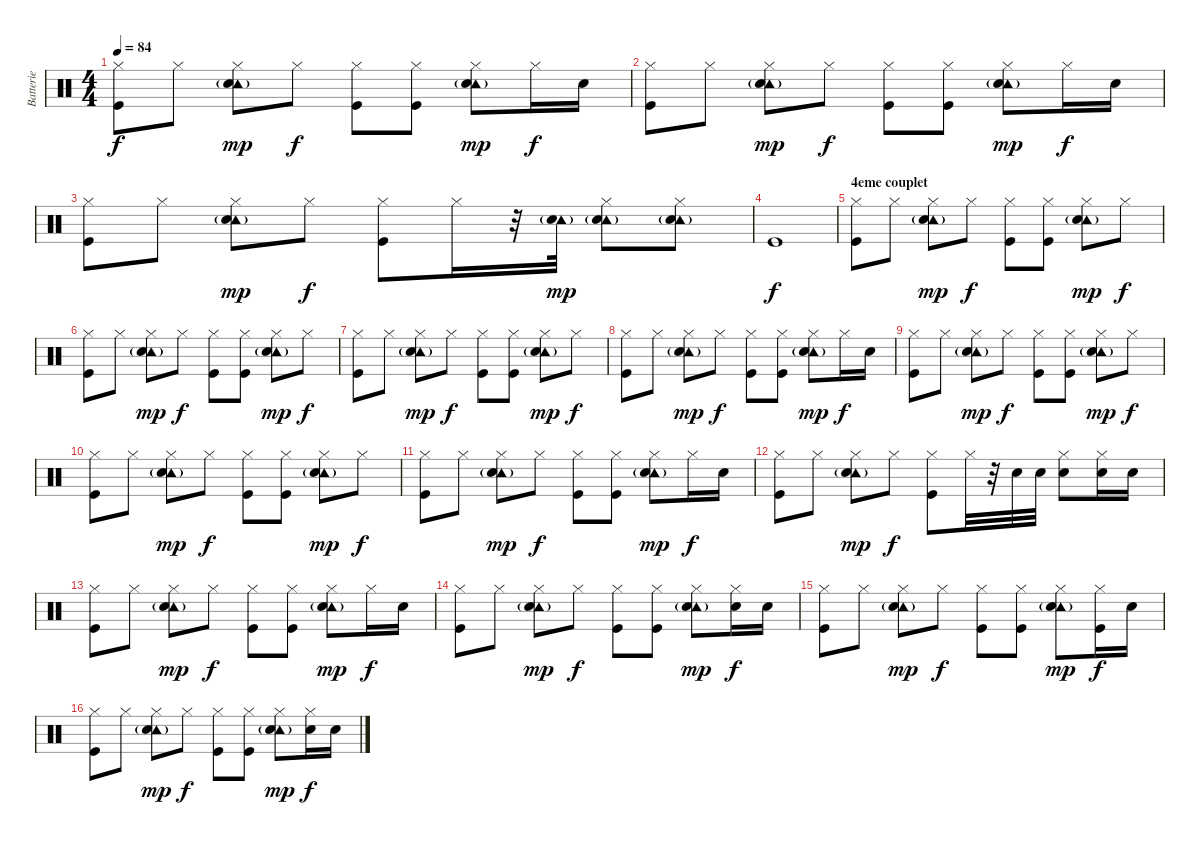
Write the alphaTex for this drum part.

\track ("Batterie" "Batterie") {instrument percussion}
\staff {score}
\articulation defaults
\ts (4 4)
\tempo 84
\clef neutral
\ks c
("Hi-Hat (closed)" "Kick (hit)").8{dy f} "Hi-Hat (closed)".8 ("Hi-Hat (closed)" "Tambourine (hit)"{g} "Snare (hit) 2").8{dy mp} "Hi-Hat (closed)".8{dy f} ("Hi-Hat (closed)" "Kick (hit)").8 ("Hi-Hat (closed)" "Kick (hit)").8 ("Hi-Hat (closed)" "Tambourine (hit)"{g} "Snare (hit) 2").8{dy mp} "Hi-Hat (closed)".16{dy f} "Snare (hit) 2".16 |
("Hi-Hat (closed)" "Kick (hit)").8 "Hi-Hat (closed)".8 ("Hi-Hat (closed)" "Tambourine (hit)"{g} "Snare (hit) 2").8{dy mp} "Hi-Hat (closed)".8{dy f} ("Hi-Hat (closed)" "Kick (hit)").8 ("Hi-Hat (closed)" "Kick (hit)").8 ("Hi-Hat (closed)" "Tambourine (hit)"{g} "Snare (hit) 2").8{dy mp} "Hi-Hat (closed)".16{dy f} "Snare (hit) 2".16 |
("Hi-Hat (closed)" "Kick (hit)").8 "Hi-Hat (closed)".8 ("Hi-Hat (closed)" "Tambourine (hit)"{g} "Snare (hit) 2").8{dy mp} "Hi-Hat (closed)".8{dy f} ("Hi-Hat (closed)" "Kick (hit)").8 "Hi-Hat (closed)".16 r.32 ("Tambourine (hit)"{g} "Snare (hit) 2").32{dy mp} ("Hi-Hat (closed)" "Tambourine (hit)"{g} "Snare (hit) 2").8 ("Hi-Hat (closed)" "Tambourine (hit)"{g} "Snare (hit) 2").8 |
"Kick (hit)".1{dy f} |
\section ("" "4eme couplet")
("Hi-Hat (closed)" "Kick (hit)").8 "Hi-Hat (closed)".8 ("Hi-Hat (closed)" "Tambourine (hit)"{g} "Snare (hit) 2").8{dy mp} "Hi-Hat (closed)".8{dy f} ("Hi-Hat (closed)" "Kick (hit)").8 ("Hi-Hat (closed)" "Kick (hit)").8 ("Hi-Hat (closed)" "Tambourine (hit)"{g} "Snare (hit) 2").8{dy mp} "Hi-Hat (closed)".8{dy f} |
("Hi-Hat (closed)" "Kick (hit)").8 "Hi-Hat (closed)".8 ("Hi-Hat (closed)" "Tambourine (hit)"{g} "Snare (hit) 2").8{dy mp} "Hi-Hat (closed)".8{dy f} ("Hi-Hat (closed)" "Kick (hit)").8 ("Hi-Hat (closed)" "Kick (hit)").8 ("Hi-Hat (closed)" "Tambourine (hit)"{g} "Snare (hit) 2").8{dy mp} "Hi-Hat (closed)".8{dy f} |
("Hi-Hat (closed)" "Kick (hit)").8 "Hi-Hat (closed)".8 ("Hi-Hat (closed)" "Tambourine (hit)"{g} "Snare (hit) 2").8{dy mp} "Hi-Hat (closed)".8{dy f} ("Hi-Hat (closed)" "Kick (hit)").8 ("Hi-Hat (closed)" "Kick (hit)").8 ("Hi-Hat (closed)" "Tambourine (hit)"{g} "Snare (hit) 2").8{dy mp} "Hi-Hat (closed)".8{dy f} |
("Hi-Hat (closed)" "Kick (hit)").8 "Hi-Hat (closed)".8 ("Hi-Hat (closed)" "Tambourine (hit)"{g} "Snare (hit) 2").8{dy mp} "Hi-Hat (closed)".8{dy f} ("Hi-Hat (closed)" "Kick (hit)").8 ("Hi-Hat (closed)" "Kick (hit)").8 ("Hi-Hat (closed)" "Tambourine (hit)"{g} "Snare (hit) 2").8{dy mp} "Hi-Hat (closed)".16{dy f} "Snare (hit) 2".16 |
("Hi-Hat (closed)" "Kick (hit)").8 "Hi-Hat (closed)".8 ("Hi-Hat (closed)" "Tambourine (hit)"{g} "Snare (hit) 2").8{dy mp} "Hi-Hat (closed)".8{dy f} ("Hi-Hat (closed)" "Kick (hit)").8 ("Hi-Hat (closed)" "Kick (hit)").8 ("Hi-Hat (closed)" "Tambourine (hit)"{g} "Snare (hit) 2").8{dy mp} "Hi-Hat (closed)".8{dy f} |
("Hi-Hat (closed)" "Kick (hit)").8 "Hi-Hat (closed)".8 ("Hi-Hat (closed)" "Tambourine (hit)"{g} "Snare (hit) 2").8{dy mp} "Hi-Hat (closed)".8{dy f} ("Hi-Hat (closed)" "Kick (hit)").8 ("Hi-Hat (closed)" "Kick (hit)").8 ("Hi-Hat (closed)" "Tambourine (hit)"{g} "Snare (hit) 2").8{dy mp} "Hi-Hat (closed)".8{dy f} |
("Hi-Hat (closed)" "Kick (hit)").8 "Hi-Hat (closed)".8 ("Hi-Hat (closed)" "Tambourine (hit)"{g} "Snare (hit) 2").8{dy mp} "Hi-Hat (closed)".8{dy f} ("Hi-Hat (closed)" "Kick (hit)").8 ("Hi-Hat (closed)" "Kick (hit)").8 ("Hi-Hat (closed)" "Tambourine (hit)"{g} "Snare (hit) 2").8{dy mp} "Hi-Hat (closed)".16{dy f} "Snare (hit) 2".16 |
("Hi-Hat (closed)" "Kick (hit)").8 "Hi-Hat (closed)".8 ("Hi-Hat (closed)" "Tambourine (hit)"{g} "Snare (hit) 2").8{dy mp} "Hi-Hat (closed)".8{dy f} ("Hi-Hat (closed)" "Kick (hit)").8 "Hi-Hat (closed)".32 r.32 "Snare (hit) 2".32 "Snare (hit) 2".32 ("Hi-Hat (closed)" "Snare (hit) 2").8 ("Hi-Hat (closed)" "Snare (hit) 2").16 "Snare (hit) 2".16 |
\section ("" "")
("Hi-Hat (closed)" "Kick (hit)").8 "Hi-Hat (closed)".8 ("Hi-Hat (closed)" "Tambourine (hit)"{g} "Snare (hit) 2").8{dy mp} "Hi-Hat (closed)".8{dy f} ("Hi-Hat (closed)" "Kick (hit)").8 ("Hi-Hat (closed)" "Kick (hit)").8 ("Hi-Hat (closed)" "Tambourine (hit)"{g} "Snare (hit) 2").8{dy mp} "Hi-Hat (closed)".16{dy f} "Snare (hit) 2".16 |
("Hi-Hat (closed)" "Kick (hit)").8 "Hi-Hat (closed)".8 ("Hi-Hat (closed)" "Tambourine (hit)"{g} "Snare (hit) 2").8{dy mp} "Hi-Hat (closed)".8{dy f} ("Hi-Hat (closed)" "Kick (hit)").8 ("Hi-Hat (closed)" "Kick (hit)").8 ("Hi-Hat (closed)" "Tambourine (hit)"{g} "Snare (hit) 2").8{dy mp} ("Hi-Hat (closed)" "Snare (hit) 2").16{dy f} "Snare (hit) 2".16 |
("Hi-Hat (closed)" "Kick (hit)").8 "Hi-Hat (closed)".8 ("Hi-Hat (closed)" "Tambourine (hit)"{g} "Snare (hit) 2").8{dy mp} "Hi-Hat (closed)".8{dy f} ("Hi-Hat (closed)" "Kick (hit)").8 ("Hi-Hat (closed)" "Kick (hit)").8 ("Hi-Hat (closed)" "Tambourine (hit)"{g} "Snare (hit) 2").8{dy mp} ("Hi-Hat (closed)" "Kick (hit)").16{dy f} "Snare (hit) 2".16 |
("Hi-Hat (closed)" "Kick (hit)").8 "Hi-Hat (closed)".8 ("Hi-Hat (closed)" "Tambourine (hit)"{g} "Snare (hit) 2").8{dy mp} "Hi-Hat (closed)".8{dy f} ("Hi-Hat (closed)" "Kick (hit)").8 ("Hi-Hat (closed)" "Kick (hit)").8 ("Hi-Hat (closed)" "Tambourine (hit)"{g} "Snare (hit) 2").8{dy mp} ("Hi-Hat (closed)" "Snare (hit) 2").16{dy f} "Snare (hit) 2".16
